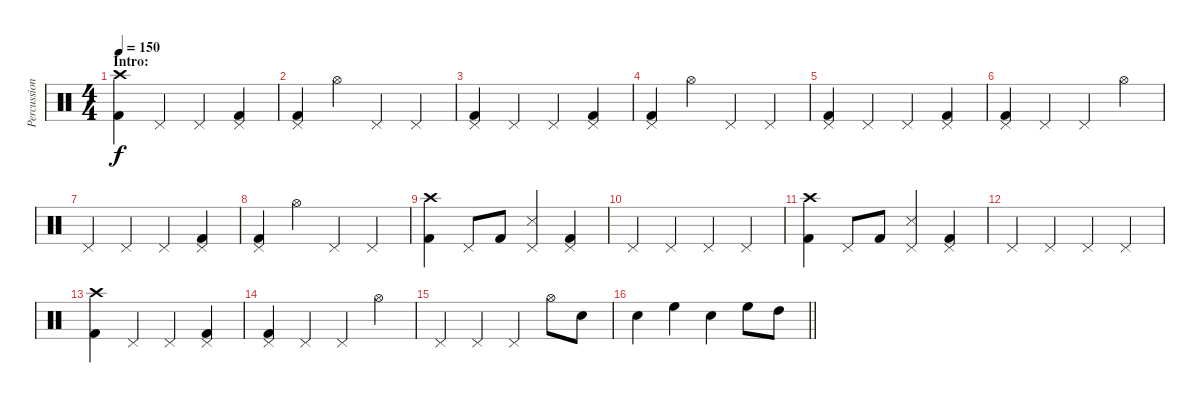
\track ("Percussion" "Percussion") {instrument percussion}
\staff {score}
\articulation defaults
\ts (4 4)
\section ("" "Intro:")
\tempo 150
\clef neutral
\ks c
("Crash high (hit)" "Kick (hit) 2").4{dy f} "Pedal Hi-Hat (hit)".4 "Pedal Hi-Hat (hit)".4 ("Pedal Hi-Hat (hit)" "Kick (hit) 2").4 |
("Pedal Hi-Hat (hit)" "Kick (hit) 2").4 "Hi-Hat (open)".4 "Pedal Hi-Hat (hit)".4 "Pedal Hi-Hat (hit)".4 |
("Pedal Hi-Hat (hit)" "Kick (hit) 2").4 "Pedal Hi-Hat (hit)".4 "Pedal Hi-Hat (hit)".4 ("Pedal Hi-Hat (hit)" "Kick (hit) 2").4 |
("Pedal Hi-Hat (hit)" "Kick (hit) 2").4 "Hi-Hat (open)".4 "Pedal Hi-Hat (hit)".4 "Pedal Hi-Hat (hit)".4 |
("Pedal Hi-Hat (hit)" "Kick (hit) 2").4 "Pedal Hi-Hat (hit)".4 "Pedal Hi-Hat (hit)".4 ("Pedal Hi-Hat (hit)" "Kick (hit) 2").4 |
("Pedal Hi-Hat (hit)" "Kick (hit) 2").4 "Pedal Hi-Hat (hit)".4 "Pedal Hi-Hat (hit)".4 "Hi-Hat (open)".4 |
"Pedal Hi-Hat (hit)".4 "Pedal Hi-Hat (hit)".4 "Pedal Hi-Hat (hit)".4 ("Pedal Hi-Hat (hit)" "Kick (hit) 2").4 |
("Pedal Hi-Hat (hit)" "Kick (hit) 2").4 "Hi-Hat (open)".4 "Pedal Hi-Hat (hit)".4 "Pedal Hi-Hat (hit)".4 |
("Crash high (hit)" "Kick (hit) 2").4 "Pedal Hi-Hat (hit)".8 "Kick (hit) 2".8 ("Pedal Hi-Hat (hit)" "Snare (side stick) 3").4 ("Pedal Hi-Hat (hit)" "Kick (hit) 2").4 |
"Pedal Hi-Hat (hit)".4 "Pedal Hi-Hat (hit)".4 "Pedal Hi-Hat (hit)".4 "Pedal Hi-Hat (hit)".4 |
("Crash high (hit)" "Kick (hit) 2").4 "Pedal Hi-Hat (hit)".8 "Kick (hit) 2".8 ("Pedal Hi-Hat (hit)" "Snare (side stick) 3").4 ("Pedal Hi-Hat (hit)" "Kick (hit) 2").4 |
"Pedal Hi-Hat (hit)".4 "Pedal Hi-Hat (hit)".4 "Pedal Hi-Hat (hit)".4 "Pedal Hi-Hat (hit)".4 |
("Crash high (hit)" "Kick (hit) 2").4 "Pedal Hi-Hat (hit)".4 "Pedal Hi-Hat (hit)".4 ("Pedal Hi-Hat (hit)" "Kick (hit) 2").4 |
("Pedal Hi-Hat (hit)" "Kick (hit) 2").4 "Pedal Hi-Hat (hit)".4 "Pedal Hi-Hat (hit)".4 "Hi-Hat (open)".4 |
"Pedal Hi-Hat (hit)".4 "Pedal Hi-Hat (hit)".4 "Pedal Hi-Hat (hit)".4 "Hi-Hat (open)".8 "Electric Snare (hit)".8 |
\barLineRight lightlight "Electric Snare (hit)".4 "High Floor Tom (hit)".4 "Electric Snare (hit)".4 "High Floor Tom (hit)".8 "High Tom (hit)".8
